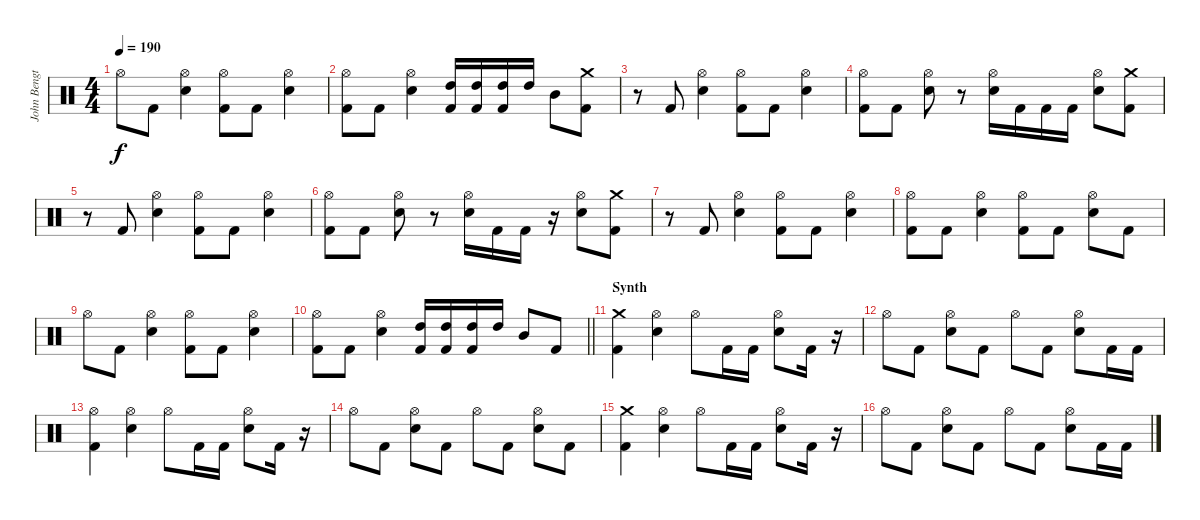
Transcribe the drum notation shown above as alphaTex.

\track ("John Bengtsson" "John Bengt") {instrument percussion}
\staff {score}
\articulation defaults
\ts (4 4)
\tempo 190
\clef neutral
\ks c "Hi-Hat (open)".8{dy f} "Kick (hit) 2".8
("Hi-Hat (open)" "Electric Snare (hit)").4 ("Hi-Hat (open)" "Kick (hit) 2").8 "Kick (hit) 2".8 ("Hi-Hat (open)" "Electric Snare (hit)").4 |
("Hi-Hat (open)" "Kick (hit) 2").8 "Kick (hit) 2".8 ("Hi-Hat (open)" "Electric Snare (hit)").4 ("High Tom (hit)" "Kick (hit) 2").16 ("High Tom (hit)" "Kick (hit) 2").16 ("High Tom (hit)" "Kick (hit) 2").16 "High Tom (hit)".16 "Mid Tom (hit)".8 ("Crash medium (hit)" "Kick (hit) 2").8 |
r.8 "Kick (hit) 2".8 ("Hi-Hat (open)" "Electric Snare (hit)").4 ("Hi-Hat (open)" "Kick (hit) 2").8 "Kick (hit) 2".8 ("Hi-Hat (open)" "Electric Snare (hit)").4 |
("Hi-Hat (open)" "Kick (hit) 2").8 "Kick (hit) 2".8 ("Hi-Hat (open)" "Electric Snare (hit)").8 r.8 ("Hi-Hat (open)" "Electric Snare (hit)").16 "Kick (hit) 2".16 "Kick (hit) 2".16 "Kick (hit) 2".16 ("Hi-Hat (open)" "Electric Snare (hit)").8 ("Crash medium (hit)" "Kick (hit) 2").8 |
r.8 "Kick (hit) 2".8 ("Hi-Hat (open)" "Electric Snare (hit)").4 ("Hi-Hat (open)" "Kick (hit) 2").8 "Kick (hit) 2".8 ("Hi-Hat (open)" "Electric Snare (hit)").4 |
("Hi-Hat (open)" "Kick (hit) 2").8 "Kick (hit) 2".8 ("Hi-Hat (open)" "Electric Snare (hit)").8 r.8 ("Hi-Hat (open)" "Electric Snare (hit)").16 "Kick (hit) 2".16 "Kick (hit) 2".16 r.16 ("Hi-Hat (open)" "Electric Snare (hit)").8 ("Crash medium (hit)" "Kick (hit) 2").8 |
r.8 "Kick (hit) 2".8 ("Hi-Hat (open)" "Electric Snare (hit)").4 ("Hi-Hat (open)" "Kick (hit) 2").8 "Kick (hit) 2".8 ("Hi-Hat (open)" "Electric Snare (hit)").4 |
("Hi-Hat (open)" "Kick (hit) 2").8 "Kick (hit) 2".8 ("Hi-Hat (open)" "Electric Snare (hit)").4 ("Hi-Hat (open)" "Kick (hit) 2").8 "Kick (hit) 2".8 ("Hi-Hat (open)" "Electric Snare (hit)").8 "Kick (hit) 2".8 |
"Hi-Hat (open)".8 "Kick (hit) 2".8 ("Hi-Hat (open)" "Electric Snare (hit)").4 ("Hi-Hat (open)" "Kick (hit) 2").8 "Kick (hit) 2".8 ("Hi-Hat (open)" "Electric Snare (hit)").4 |
\barLineRight lightlight
("Hi-Hat (open)" "Kick (hit) 2").8 "Kick (hit) 2".8 ("Hi-Hat (open)" "Electric Snare (hit)").4 ("High Tom (hit)" "Kick (hit) 2").16 ("High Tom (hit)" "Kick (hit) 2").16 ("High Tom (hit)" "Kick (hit) 2").16 "High Tom (hit)".16 "Mid Tom (hit)".8 "Kick (hit) 2".8 |
\section ("" "Synth")
("Crash medium (hit)" "Kick (hit) 2").4 ("Hi-Hat (open)" "Electric Snare (hit)").4 "Hi-Hat (open)".8 "Kick (hit) 2".16 "Kick (hit) 2".16 ("Hi-Hat (open)" "Electric Snare (hit)").8 "Kick (hit) 2".16 r.16 |
"Hi-Hat (open)".8 "Kick (hit) 2".8 ("Hi-Hat (open)" "Electric Snare (hit)").8 "Kick (hit) 2".8 "Hi-Hat (open)".8 "Kick (hit) 2".8 ("Hi-Hat (open)" "Electric Snare (hit)").8 "Kick (hit) 2".16 "Kick (hit) 2".16 |
("Hi-Hat (open)" "Kick (hit) 2").4 ("Hi-Hat (open)" "Electric Snare (hit)").4 "Hi-Hat (open)".8 "Kick (hit) 2".16 "Kick (hit) 2".16 ("Hi-Hat (open)" "Electric Snare (hit)").8 "Kick (hit) 2".16 r.16 |
"Hi-Hat (open)".8 "Kick (hit) 2".8 ("Hi-Hat (open)" "Electric Snare (hit)").8 "Kick (hit) 2".8 "Hi-Hat (open)".8 "Kick (hit) 2".8 ("Hi-Hat (open)" "Electric Snare (hit)").8 "Kick (hit) 2".8 |
("Crash medium (hit)" "Kick (hit) 2").4 ("Hi-Hat (open)" "Electric Snare (hit)").4 "Hi-Hat (open)".8 "Kick (hit) 2".16 "Kick (hit) 2".16 ("Hi-Hat (open)" "Electric Snare (hit)").8 "Kick (hit) 2".16 r.16 |
"Hi-Hat (open)".8 "Kick (hit) 2".8 ("Hi-Hat (open)" "Electric Snare (hit)").8 "Kick (hit) 2".8 "Hi-Hat (open)".8 "Kick (hit) 2".8 ("Hi-Hat (open)" "Electric Snare (hit)").8 "Kick (hit) 2".16 "Kick (hit) 2".16
